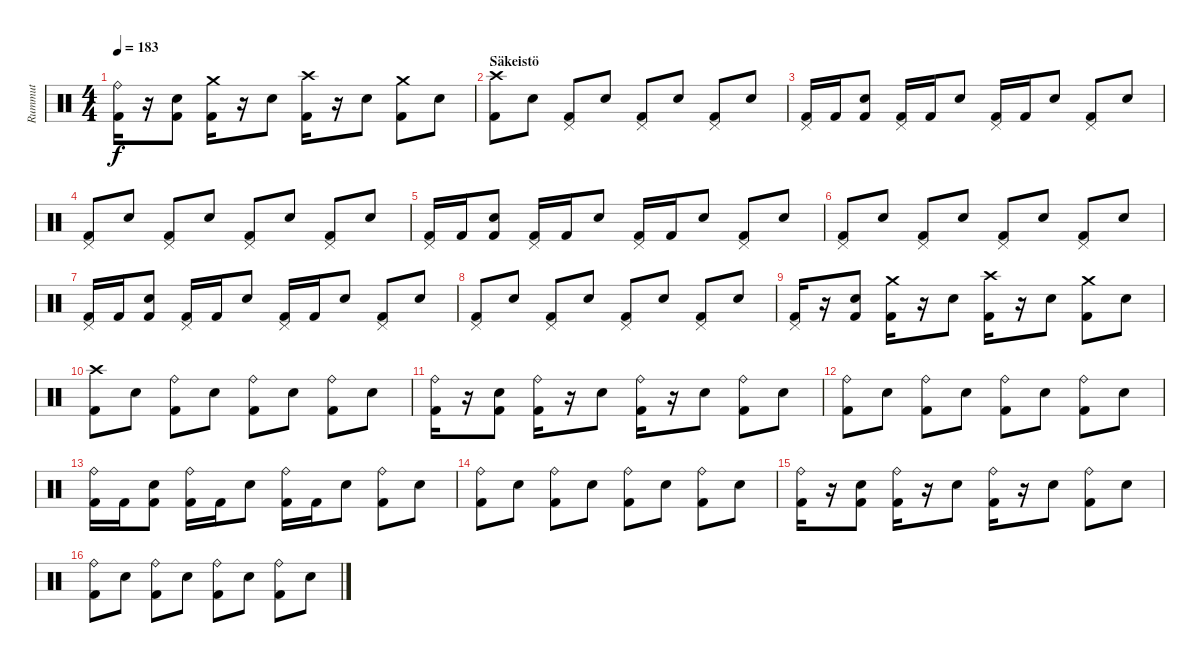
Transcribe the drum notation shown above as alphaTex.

\track ("Rummut" "Rummut") {instrument percussion}
\staff {score}
\articulation defaults
\ts (4 4)
\tempo 183
\clef neutral
\ks c
("Ride (bell)" "Kick (hit) 2").16{dy f} r.16 ("Electric Snare (hit)" "Kick (hit) 2").8 ("Crash medium (hit)" "Kick (hit) 2").16 r.16 "Electric Snare (hit)".8 ("Crash high (hit)" "Kick (hit) 2").16 r.16 "Snare (hit) 2".8 ("Crash medium (hit)" "Kick (hit) 2").8 "Snare (hit) 2".8 |
\section ("" "Säkeistö")
("Crash high (hit)" "Kick (hit) 2").8 "Electric Snare (hit)".8 ("Pedal Hi-Hat (hit)" "Kick (hit) 2").8 "Electric Snare (hit)".8 ("Pedal Hi-Hat (hit)" "Kick (hit) 2").8 "Electric Snare (hit)".8 ("Pedal Hi-Hat (hit)" "Kick (hit) 2").8 "Electric Snare (hit)".8 |
("Pedal Hi-Hat (hit)" "Kick (hit) 2").16 "Kick (hit) 2".16 ("Electric Snare (hit)" "Kick (hit) 2").8 ("Pedal Hi-Hat (hit)" "Kick (hit) 2").16 "Kick (hit) 2".16 "Electric Snare (hit)".8 ("Pedal Hi-Hat (hit)" "Kick (hit) 2").16 "Kick (hit) 2".16 "Electric Snare (hit)".8 ("Pedal Hi-Hat (hit)" "Kick (hit) 2").8 "Electric Snare (hit)".8 |
("Pedal Hi-Hat (hit)" "Kick (hit) 2").8 "Electric Snare (hit)".8 ("Pedal Hi-Hat (hit)" "Kick (hit) 2").8 "Electric Snare (hit)".8 ("Pedal Hi-Hat (hit)" "Kick (hit) 2").8 "Electric Snare (hit)".8 ("Pedal Hi-Hat (hit)" "Kick (hit) 2").8 "Electric Snare (hit)".8 |
("Pedal Hi-Hat (hit)" "Kick (hit) 2").16 "Kick (hit) 2".16 ("Electric Snare (hit)" "Kick (hit) 2").8 ("Pedal Hi-Hat (hit)" "Kick (hit) 2").16 "Kick (hit) 2".16 "Electric Snare (hit)".8 ("Pedal Hi-Hat (hit)" "Kick (hit) 2").16 "Kick (hit) 2".16 "Electric Snare (hit)".8 ("Pedal Hi-Hat (hit)" "Kick (hit) 2").8 "Electric Snare (hit)".8 |
("Pedal Hi-Hat (hit)" "Kick (hit) 2").8 "Electric Snare (hit)".8 ("Pedal Hi-Hat (hit)" "Kick (hit) 2").8 "Electric Snare (hit)".8 ("Pedal Hi-Hat (hit)" "Kick (hit) 2").8 "Electric Snare (hit)".8 ("Pedal Hi-Hat (hit)" "Kick (hit) 2").8 "Electric Snare (hit)".8 |
("Pedal Hi-Hat (hit)" "Kick (hit) 2").16 "Kick (hit) 2".16 ("Electric Snare (hit)" "Kick (hit) 2").8 ("Pedal Hi-Hat (hit)" "Kick (hit) 2").16 "Kick (hit) 2".16 "Electric Snare (hit)".8 ("Pedal Hi-Hat (hit)" "Kick (hit) 2").16 "Kick (hit) 2".16 "Electric Snare (hit)".8 ("Pedal Hi-Hat (hit)" "Kick (hit) 2").8 "Electric Snare (hit)".8 |
("Pedal Hi-Hat (hit)" "Kick (hit) 2").8 "Electric Snare (hit)".8 ("Pedal Hi-Hat (hit)" "Kick (hit) 2").8 "Electric Snare (hit)".8 ("Pedal Hi-Hat (hit)" "Kick (hit) 2").8 "Electric Snare (hit)".8 ("Pedal Hi-Hat (hit)" "Kick (hit) 2").8 "Electric Snare (hit)".8 |
("Pedal Hi-Hat (hit)" "Kick (hit) 2").16 r.16 ("Electric Snare (hit)" "Kick (hit) 2").8 ("Crash medium (hit)" "Kick (hit) 2").16 r.16 "Electric Snare (hit)".8 ("Crash high (hit)" "Kick (hit) 2").16 r.16 "Electric Snare (hit)".8 ("Crash medium (hit)" "Kick (hit) 2").8 "Electric Snare (hit)".8 |
("Crash high (hit)" "Kick (hit) 2").8 "Electric Snare (hit)".8 ("Ride (bell)" "Kick (hit) 2").8 "Electric Snare (hit)".8 ("Ride (bell)" "Kick (hit) 2").8 "Electric Snare (hit)".8 ("Ride (bell)" "Kick (hit) 2").8 "Electric Snare (hit)".8 |
("Ride (bell)" "Kick (hit) 2").16 r.16 ("Electric Snare (hit)" "Kick (hit) 2").8 ("Ride (bell)" "Kick (hit) 2").16 r.16 "Electric Snare (hit)".8 ("Ride (bell)" "Kick (hit) 2").16 r.16 "Electric Snare (hit)".8 ("Ride (bell)" "Kick (hit) 2").8 "Electric Snare (hit)".8 |
("Ride (bell)" "Kick (hit) 2").8 "Electric Snare (hit)".8 ("Ride (bell)" "Kick (hit) 2").8 "Electric Snare (hit)".8 ("Ride (bell)" "Kick (hit) 2").8 "Electric Snare (hit)".8 ("Ride (bell)" "Kick (hit) 2").8 "Electric Snare (hit)".8 |
("Ride (bell)" "Kick (hit) 2").16 "Kick (hit) 2".16 ("Electric Snare (hit)" "Kick (hit) 2").8 ("Ride (bell)" "Kick (hit) 2").16 "Kick (hit) 2".16 "Electric Snare (hit)".8 ("Ride (bell)" "Kick (hit) 2").16 "Kick (hit) 2".16 "Electric Snare (hit)".8 ("Ride (bell)" "Kick (hit) 2").8 "Electric Snare (hit)".8 |
("Ride (bell)" "Kick (hit) 2").8 "Electric Snare (hit)".8 ("Ride (bell)" "Kick (hit) 2").8 "Electric Snare (hit)".8 ("Ride (bell)" "Kick (hit) 2").8 "Electric Snare (hit)".8 ("Ride (bell)" "Kick (hit) 2").8 "Electric Snare (hit)".8 |
("Ride (bell)" "Kick (hit) 2").16 r.16 ("Electric Snare (hit)" "Kick (hit) 2").8 ("Ride (bell)" "Kick (hit) 2").16 r.16 "Electric Snare (hit)".8 ("Ride (bell)" "Kick (hit) 2").16 r.16 "Electric Snare (hit)".8 ("Ride (bell)" "Kick (hit) 2").8 "Electric Snare (hit)".8 |
("Ride (bell)" "Kick (hit) 2").8 "Electric Snare (hit)".8 ("Ride (bell)" "Kick (hit) 2").8 "Electric Snare (hit)".8 ("Ride (bell)" "Kick (hit) 2").8 "Electric Snare (hit)".8 ("Ride (bell)" "Kick (hit) 2").8 "Electric Snare (hit)".8
